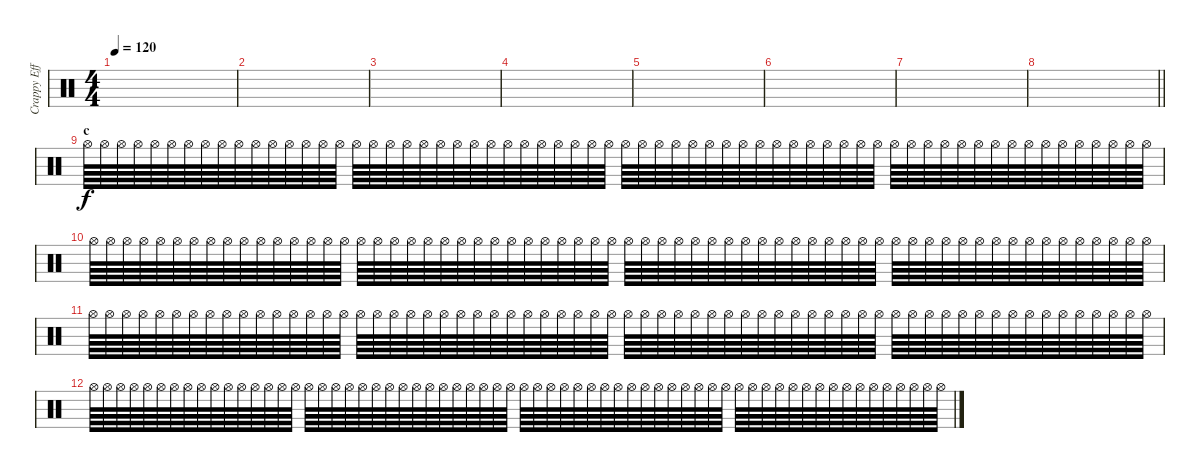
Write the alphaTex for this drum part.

\track ("Crappy Effects" "Crappy Eff") {instrument percussion}
\staff {score}
\articulation defaults
\ts (4 4)
\tempo 120
\clef neutral
\ks c
|
|
|
|
|
|
|
\barLineRight lightlight
|
\section ("" "c")
"Hi-Hat (open)".64 "Hi-Hat (open)".64 "Hi-Hat (open)".64 "Hi-Hat (open)".64 "Hi-Hat (open)".64 "Hi-Hat (open)".64 "Hi-Hat (open)".64 "Hi-Hat (open)".64 "Hi-Hat (open)".64 "Hi-Hat (open)".64 "Hi-Hat (open)".64 "Hi-Hat (open)".64 "Hi-Hat (open)".64 "Hi-Hat (open)".64 "Hi-Hat (open)".64 "Hi-Hat (open)".64 "Hi-Hat (open)".64 "Hi-Hat (open)".64 "Hi-Hat (open)".64 "Hi-Hat (open)".64 "Hi-Hat (open)".64 "Hi-Hat (open)".64 "Hi-Hat (open)".64 "Hi-Hat (open)".64 "Hi-Hat (open)".64 "Hi-Hat (open)".64 "Hi-Hat (open)".64 "Hi-Hat (open)".64 "Hi-Hat (open)".64 "Hi-Hat (open)".64 "Hi-Hat (open)".64 "Hi-Hat (open)".64 "Hi-Hat (open)".64 "Hi-Hat (open)".64 "Hi-Hat (open)".64 "Hi-Hat (open)".64 "Hi-Hat (open)".64 "Hi-Hat (open)".64 "Hi-Hat (open)".64 "Hi-Hat (open)".64 "Hi-Hat (open)".64 "Hi-Hat (open)".64 "Hi-Hat (open)".64 "Hi-Hat (open)".64 "Hi-Hat (open)".64 "Hi-Hat (open)".64 "Hi-Hat (open)".64 "Hi-Hat (open)".64 "Hi-Hat (open)".64 "Hi-Hat (open)".64 "Hi-Hat (open)".64 "Hi-Hat (open)".64 "Hi-Hat (open)".64 "Hi-Hat (open)".64 "Hi-Hat (open)".64 "Hi-Hat (open)".64 "Hi-Hat (open)".64 "Hi-Hat (open)".64 "Hi-Hat (open)".64 "Hi-Hat (open)".64 "Hi-Hat (open)".64 "Hi-Hat (open)".64 "Hi-Hat (open)".64 "Hi-Hat (open)".64 |
"Hi-Hat (open)".64 "Hi-Hat (open)".64 "Hi-Hat (open)".64 "Hi-Hat (open)".64 "Hi-Hat (open)".64 "Hi-Hat (open)".64 "Hi-Hat (open)".64 "Hi-Hat (open)".64 "Hi-Hat (open)".64 "Hi-Hat (open)".64 "Hi-Hat (open)".64 "Hi-Hat (open)".64 "Hi-Hat (open)".64 "Hi-Hat (open)".64 "Hi-Hat (open)".64 "Hi-Hat (open)".64 "Hi-Hat (open)".64 "Hi-Hat (open)".64 "Hi-Hat (open)".64 "Hi-Hat (open)".64 "Hi-Hat (open)".64 "Hi-Hat (open)".64 "Hi-Hat (open)".64 "Hi-Hat (open)".64 "Hi-Hat (open)".64 "Hi-Hat (open)".64 "Hi-Hat (open)".64 "Hi-Hat (open)".64 "Hi-Hat (open)".64 "Hi-Hat (open)".64 "Hi-Hat (open)".64 "Hi-Hat (open)".64 "Hi-Hat (open)".64 "Hi-Hat (open)".64 "Hi-Hat (open)".64 "Hi-Hat (open)".64 "Hi-Hat (open)".64 "Hi-Hat (open)".64 "Hi-Hat (open)".64 "Hi-Hat (open)".64 "Hi-Hat (open)".64 "Hi-Hat (open)".64 "Hi-Hat (open)".64 "Hi-Hat (open)".64 "Hi-Hat (open)".64 "Hi-Hat (open)".64 "Hi-Hat (open)".64 "Hi-Hat (open)".64 "Hi-Hat (open)".64 "Hi-Hat (open)".64 "Hi-Hat (open)".64 "Hi-Hat (open)".64 "Hi-Hat (open)".64 "Hi-Hat (open)".64 "Hi-Hat (open)".64 "Hi-Hat (open)".64 "Hi-Hat (open)".64 "Hi-Hat (open)".64 "Hi-Hat (open)".64 "Hi-Hat (open)".64 "Hi-Hat (open)".64 "Hi-Hat (open)".64 "Hi-Hat (open)".64 "Hi-Hat (open)".64 |
"Hi-Hat (open)".64 "Hi-Hat (open)".64 "Hi-Hat (open)".64 "Hi-Hat (open)".64 "Hi-Hat (open)".64 "Hi-Hat (open)".64 "Hi-Hat (open)".64 "Hi-Hat (open)".64 "Hi-Hat (open)".64 "Hi-Hat (open)".64 "Hi-Hat (open)".64 "Hi-Hat (open)".64 "Hi-Hat (open)".64 "Hi-Hat (open)".64 "Hi-Hat (open)".64 "Hi-Hat (open)".64 "Hi-Hat (open)".64 "Hi-Hat (open)".64 "Hi-Hat (open)".64 "Hi-Hat (open)".64 "Hi-Hat (open)".64 "Hi-Hat (open)".64 "Hi-Hat (open)".64 "Hi-Hat (open)".64 "Hi-Hat (open)".64 "Hi-Hat (open)".64 "Hi-Hat (open)".64 "Hi-Hat (open)".64 "Hi-Hat (open)".64 "Hi-Hat (open)".64 "Hi-Hat (open)".64 "Hi-Hat (open)".64 "Hi-Hat (open)".64 "Hi-Hat (open)".64 "Hi-Hat (open)".64 "Hi-Hat (open)".64 "Hi-Hat (open)".64 "Hi-Hat (open)".64 "Hi-Hat (open)".64 "Hi-Hat (open)".64 "Hi-Hat (open)".64 "Hi-Hat (open)".64 "Hi-Hat (open)".64 "Hi-Hat (open)".64 "Hi-Hat (open)".64 "Hi-Hat (open)".64 "Hi-Hat (open)".64 "Hi-Hat (open)".64 "Hi-Hat (open)".64 "Hi-Hat (open)".64 "Hi-Hat (open)".64 "Hi-Hat (open)".64 "Hi-Hat (open)".64 "Hi-Hat (open)".64 "Hi-Hat (open)".64 "Hi-Hat (open)".64 "Hi-Hat (open)".64 "Hi-Hat (open)".64 "Hi-Hat (open)".64 "Hi-Hat (open)".64 "Hi-Hat (open)".64 "Hi-Hat (open)".64 "Hi-Hat (open)".64 "Hi-Hat (open)".64 |
"Hi-Hat (open)".64 "Hi-Hat (open)".64 "Hi-Hat (open)".64 "Hi-Hat (open)".64 "Hi-Hat (open)".64 "Hi-Hat (open)".64 "Hi-Hat (open)".64 "Hi-Hat (open)".64 "Hi-Hat (open)".64 "Hi-Hat (open)".64 "Hi-Hat (open)".64 "Hi-Hat (open)".64 "Hi-Hat (open)".64 "Hi-Hat (open)".64 "Hi-Hat (open)".64 "Hi-Hat (open)".64 "Hi-Hat (open)".64 "Hi-Hat (open)".64 "Hi-Hat (open)".64 "Hi-Hat (open)".64 "Hi-Hat (open)".64 "Hi-Hat (open)".64 "Hi-Hat (open)".64 "Hi-Hat (open)".64 "Hi-Hat (open)".64 "Hi-Hat (open)".64 "Hi-Hat (open)".64 "Hi-Hat (open)".64 "Hi-Hat (open)".64 "Hi-Hat (open)".64 "Hi-Hat (open)".64 "Hi-Hat (open)".64 "Hi-Hat (open)".64 "Hi-Hat (open)".64 "Hi-Hat (open)".64 "Hi-Hat (open)".64 "Hi-Hat (open)".64 "Hi-Hat (open)".64 "Hi-Hat (open)".64 "Hi-Hat (open)".64 "Hi-Hat (open)".64 "Hi-Hat (open)".64 "Hi-Hat (open)".64 "Hi-Hat (open)".64 "Hi-Hat (open)".64 "Hi-Hat (open)".64 "Hi-Hat (open)".64 "Hi-Hat (open)".64 "Hi-Hat (open)".64 "Hi-Hat (open)".64 "Hi-Hat (open)".64 "Hi-Hat (open)".64 "Hi-Hat (open)".64 "Hi-Hat (open)".64 "Hi-Hat (open)".64 "Hi-Hat (open)".64 "Hi-Hat (open)".64 "Hi-Hat (open)".64 "Hi-Hat (open)".64 "Hi-Hat (open)".64 "Hi-Hat (open)".64 "Hi-Hat (open)".64 "Hi-Hat (open)".64 "Hi-Hat (open)".64
